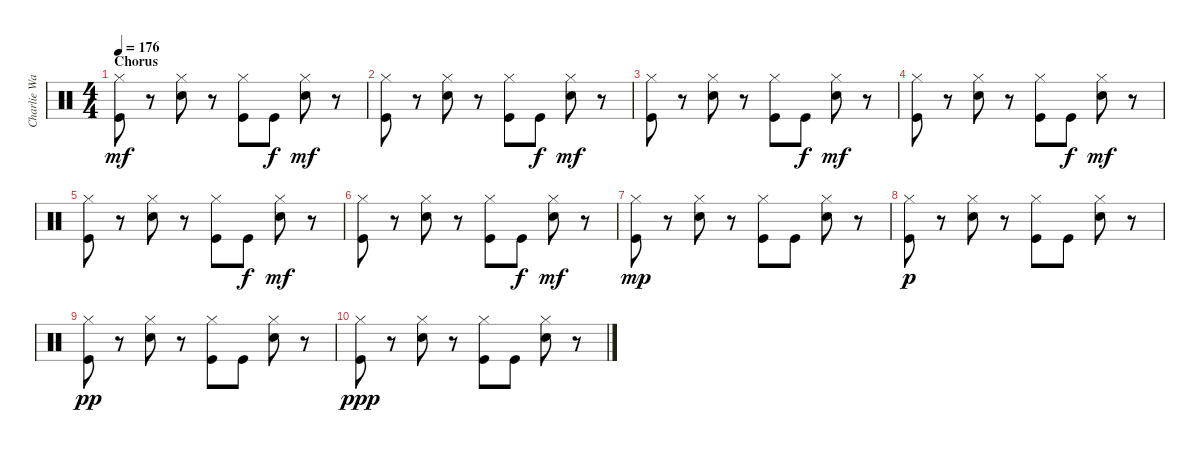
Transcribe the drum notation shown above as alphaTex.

\track ("Charlie Watts" "Charlie Wa") {instrument percussion}
\staff {score}
\articulation defaults
\ts (4 4)
\section ("" "Chorus")
\tempo 176
\clef neutral
\ks c
("Hi-Hat (closed)" "Kick (hit)").8{dy mf} r.8 ("Hi-Hat (closed)" "Snare (hit) 2").8 r.8 ("Hi-Hat (closed)" "Kick (hit)").8 "Kick (hit)".8{dy f} ("Hi-Hat (closed)" "Snare (hit) 2").8{dy mf} r.8 |
("Hi-Hat (closed)" "Kick (hit)").8 r.8 ("Hi-Hat (closed)" "Snare (hit) 2").8 r.8 ("Hi-Hat (closed)" "Kick (hit)").8 "Kick (hit)".8{dy f} ("Hi-Hat (closed)" "Snare (hit) 2").8{dy mf} r.8 |
("Hi-Hat (closed)" "Kick (hit)").8 r.8 ("Hi-Hat (closed)" "Snare (hit) 2").8 r.8 ("Hi-Hat (closed)" "Kick (hit)").8 "Kick (hit)".8{dy f} ("Hi-Hat (closed)" "Snare (hit) 2").8{dy mf} r.8 |
("Hi-Hat (closed)" "Kick (hit)").8 r.8 ("Hi-Hat (closed)" "Snare (hit) 2").8 r.8 ("Hi-Hat (closed)" "Kick (hit)").8 "Kick (hit)".8{dy f} ("Hi-Hat (closed)" "Snare (hit) 2").8{dy mf} r.8 |
("Hi-Hat (closed)" "Kick (hit)").8 r.8 ("Hi-Hat (closed)" "Snare (hit) 2").8 r.8 ("Hi-Hat (closed)" "Kick (hit)").8 "Kick (hit)".8{dy f} ("Hi-Hat (closed)" "Snare (hit) 2").8{dy mf} r.8 |
("Hi-Hat (closed)" "Kick (hit)").8 r.8 ("Hi-Hat (closed)" "Snare (hit) 2").8 r.8 ("Hi-Hat (closed)" "Kick (hit)").8 "Kick (hit)".8{dy f} ("Hi-Hat (closed)" "Snare (hit) 2").8{dy mf} r.8 |
("Hi-Hat (closed)" "Kick (hit)").8{dy mp} r.8 ("Hi-Hat (closed)" "Snare (hit) 2").8 r.8 ("Hi-Hat (closed)" "Kick (hit)").8 "Kick (hit)".8 ("Hi-Hat (closed)" "Snare (hit) 2").8 r.8 |
("Hi-Hat (closed)" "Kick (hit)").8{dy p} r.8 ("Hi-Hat (closed)" "Snare (hit) 2").8 r.8 ("Hi-Hat (closed)" "Kick (hit)").8 "Kick (hit)".8 ("Hi-Hat (closed)" "Snare (hit) 2").8 r.8 |
("Hi-Hat (closed)" "Kick (hit)").8{dy pp} r.8 ("Hi-Hat (closed)" "Snare (hit) 2").8 r.8 ("Hi-Hat (closed)" "Kick (hit)").8 "Kick (hit)".8 ("Hi-Hat (closed)" "Snare (hit) 2").8 r.8 |
("Hi-Hat (closed)" "Kick (hit)").8{dy ppp} r.8 ("Hi-Hat (closed)" "Snare (hit) 2").8 r.8 ("Hi-Hat (closed)" "Kick (hit)").8 "Kick (hit)".8 ("Hi-Hat (closed)" "Snare (hit) 2").8 r.8
